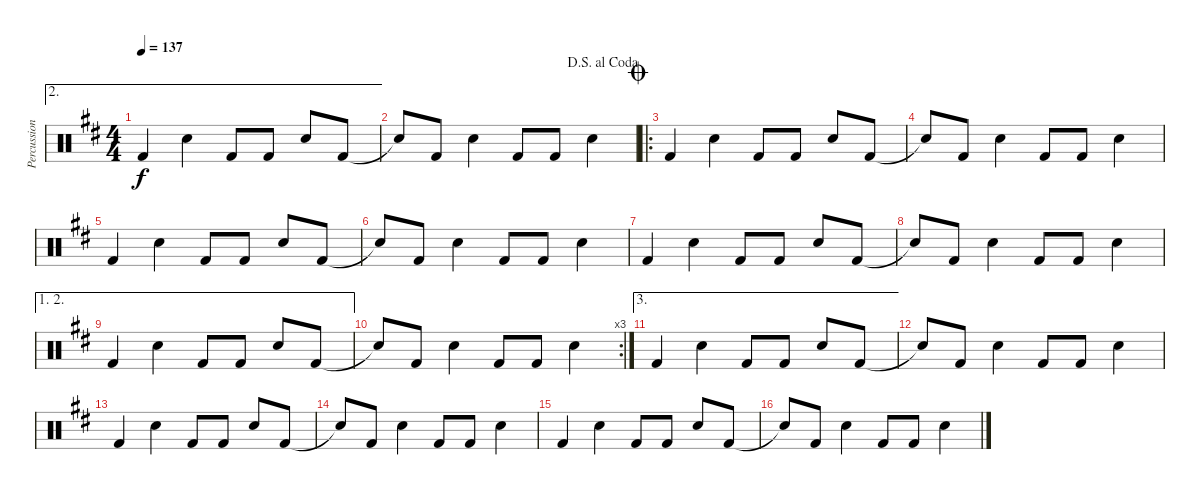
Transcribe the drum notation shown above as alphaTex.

\track ("Percussion" "Percussion") {instrument percussion}
\staff {score}
\articulation defaults
\ae 2
\ts (4 4)
\tempo 137
\clef neutral
\ks d "Kick (hit) 2".4{dy f} "Electric Snare (hit)".4 "Kick (hit) 2".8 "Kick (hit) 2".8 "Electric Snare (hit)".8 "Kick (hit) 2".8
|
\jump dalsegnoalcoda "Snare (hit)"{t}.8 "Kick (hit) 2".8 "Electric Snare (hit)".4 "Kick (hit) 2".8 "Kick (hit) 2".8 "Electric Snare (hit)".4
|
\ro
\jump coda "Kick (hit) 2".4 "Electric Snare (hit)".4 "Kick (hit) 2".8 "Kick (hit) 2".8 "Electric Snare (hit)".8 "Kick (hit) 2".8
|
"Snare (hit)"{t}.8 "Kick (hit) 2".8 "Electric Snare (hit)".4 "Kick (hit) 2".8 "Kick (hit) 2".8 "Electric Snare (hit)".4 |
"Kick (hit) 2".4 "Electric Snare (hit)".4 "Kick (hit) 2".8 "Kick (hit) 2".8 "Electric Snare (hit)".8 "Kick (hit) 2".8 |
"Snare (hit)"{t}.8 "Kick (hit) 2".8 "Electric Snare (hit)".4 "Kick (hit) 2".8 "Kick (hit) 2".8 "Electric Snare (hit)".4 |
"Kick (hit) 2".4 "Electric Snare (hit)".4 "Kick (hit) 2".8 "Kick (hit) 2".8 "Electric Snare (hit)".8 "Kick (hit) 2".8 |
"Snare (hit)"{t}.8 "Kick (hit) 2".8 "Electric Snare (hit)".4 "Kick (hit) 2".8 "Kick (hit) 2".8 "Electric Snare (hit)".4 |
\ae (1 2)
"Kick (hit) 2".4 "Electric Snare (hit)".4 "Kick (hit) 2".8 "Kick (hit) 2".8 "Electric Snare (hit)".8 "Kick (hit) 2".8 |
\rc 3 "Snare (hit)"{t}.8 "Kick (hit) 2".8 "Electric Snare (hit)".4 "Kick (hit) 2".8 "Kick (hit) 2".8 "Electric Snare (hit)".4
|
\ae 3 "Kick (hit) 2".4 "Electric Snare (hit)".4 "Kick (hit) 2".8 "Kick (hit) 2".8 "Electric Snare (hit)".8 "Kick (hit) 2".8
|
"Snare (hit)"{t}.8 "Kick (hit) 2".8 "Electric Snare (hit)".4 "Kick (hit) 2".8 "Kick (hit) 2".8 "Electric Snare (hit)".4 |
"Kick (hit) 2".4 "Electric Snare (hit)".4 "Kick (hit) 2".8 "Kick (hit) 2".8 "Electric Snare (hit)".8 "Kick (hit) 2".8 |
"Snare (hit)"{t}.8 "Kick (hit) 2".8 "Electric Snare (hit)".4 "Kick (hit) 2".8 "Kick (hit) 2".8 "Electric Snare (hit)".4 |
"Kick (hit) 2".4 "Electric Snare (hit)".4 "Kick (hit) 2".8 "Kick (hit) 2".8 "Electric Snare (hit)".8 "Kick (hit) 2".8 |
"Snare (hit)"{t}.8 "Kick (hit) 2".8 "Electric Snare (hit)".4 "Kick (hit) 2".8 "Kick (hit) 2".8 "Electric Snare (hit)".4
